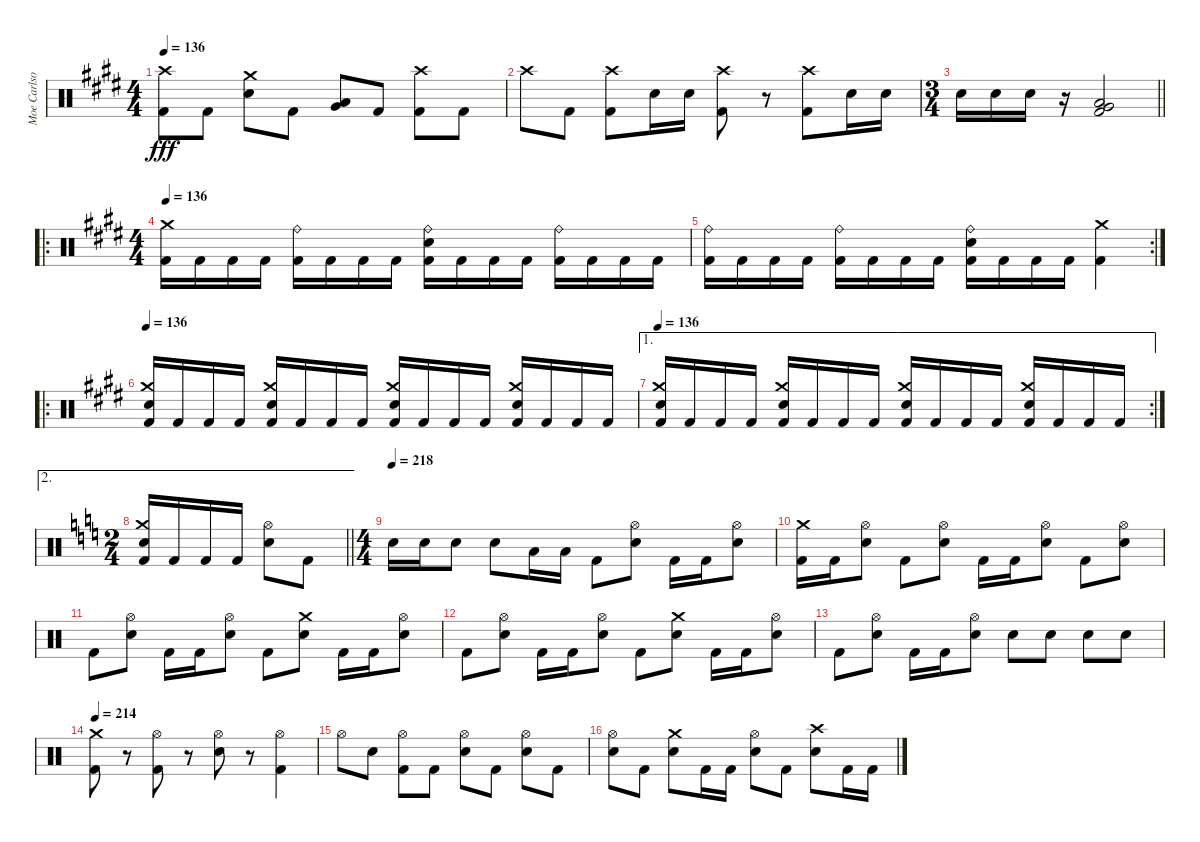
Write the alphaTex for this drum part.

\track ("Moe Carlson" "Moe Carlso") {instrument percussion}
\staff {score}
\articulation defaults
\ts (4 4)
\tempo 136
\clef neutral
\ks e
("Crash high (hit)" "Kick (hit) 2"{t}).8{dy fff} "Kick (hit) 2".8 ("Crash medium (hit)" "Electric Snare (hit)").8 "Kick (hit) 2".8 ("Low Tom (hit)" "Very Low Tom (hit)").8 "Kick (hit) 2".8 ("Crash high (hit)" "Kick (hit) 2").8 "Kick (hit) 2".8 |
"Crash high (hit)".8 "Kick (hit) 2".8 ("Crash high (hit)" "Kick (hit) 2").8 "Electric Snare (hit)".16 "Electric Snare (hit)".16 ("Crash high (hit)" "Kick (hit) 2").8 r.8 ("Crash high (hit)" "Kick (hit) 2").8 "Electric Snare (hit)".16 "Electric Snare (hit)".16 |
\ts (3 4)
\barLineRight lightlight "Electric Snare (hit)".16 "Electric Snare (hit)".16 "Electric Snare (hit)".16
r.16 ("Low Tom (hit)" "Very Low Tom (hit)" "Kick (hit) 2").2 |
\ro
\ts (4 4)
\tempo 136
("Crash medium (hit)" "Kick (hit) 2").16 "Kick (hit) 2".16 "Kick (hit) 2".16 "Kick (hit) 2".16 ("Ride (bell)" "Kick (hit) 2").16 "Kick (hit) 2".16 "Kick (hit) 2".16 "Kick (hit) 2".16 ("Ride (bell)" "Electric Snare (hit)" "Kick (hit) 2").16 "Kick (hit) 2".16 "Kick (hit) 2".16 "Kick (hit) 2".16 ("Ride (bell)" "Kick (hit) 2").16 "Kick (hit) 2".16 "Kick (hit) 2".16 "Kick (hit) 2".16 |
\rc 2
("Ride (bell)" "Kick (hit) 2").16 "Kick (hit) 2".16 "Kick (hit) 2".16 "Kick (hit) 2".16 ("Ride (bell)" "Kick (hit) 2").16 "Kick (hit) 2".16 "Kick (hit) 2".16 "Kick (hit) 2".16 ("Ride (bell)" "Electric Snare (hit)" "Kick (hit) 2").16 "Kick (hit) 2".16 "Kick (hit) 2".16 "Kick (hit) 2".16 ("Crash medium (hit)" "Kick (hit) 2").4 |
\ro
\tempo 136
("Crash medium (hit)" "Electric Snare (hit)" "Kick (hit) 2").16 "Kick (hit) 2".16 "Kick (hit) 2".16 "Kick (hit) 2".16 ("Crash medium (hit)" "Electric Snare (hit)" "Kick (hit) 2").16 "Kick (hit) 2".16 "Kick (hit) 2".16 "Kick (hit) 2".16 ("Crash medium (hit)" "Electric Snare (hit)" "Kick (hit) 2").16 "Kick (hit) 2".16 "Kick (hit) 2".16 "Kick (hit) 2".16 ("Crash medium (hit)" "Electric Snare (hit)" "Kick (hit) 2").16 "Kick (hit) 2".16 "Kick (hit) 2".16 "Kick (hit) 2".16 |
\ae 1
\rc 2
\tempo 136
("Crash medium (hit)" "Electric Snare (hit)" "Kick (hit) 2").16 "Kick (hit) 2".16 "Kick (hit) 2".16 "Kick (hit) 2".16 ("Crash medium (hit)" "Electric Snare (hit)" "Kick (hit) 2").16 "Kick (hit) 2".16 "Kick (hit) 2".16 "Kick (hit) 2".16 ("Crash medium (hit)" "Electric Snare (hit)" "Kick (hit) 2").16 "Kick (hit) 2".16 "Kick (hit) 2".16 "Kick (hit) 2".16 ("Crash medium (hit)" "Electric Snare (hit)" "Kick (hit) 2").16 "Kick (hit) 2".16 "Kick (hit) 2".16 "Kick (hit) 2".16 |
\ae 2
\ts (2 4)
\barLineRight lightlight
\ks c
("Crash medium (hit)" "Electric Snare (hit)" "Kick (hit) 2").16 "Kick (hit) 2".16 "Kick (hit) 2".16 "Kick (hit) 2".16 ("Hi-Hat (open)" "Electric Snare (hit)").8 "Kick (hit) 2".8 |
\ts (4 4)
\tempo (218)
"Electric Snare (hit)".16 "Electric Snare (hit)".16 "Electric Snare (hit)".8 "Electric Snare (hit)".8 "Low Tom (hit)".16 "Low Tom (hit)".16 "Kick (hit) 2".8 ("Hi-Hat (open)" "Electric Snare (hit)").8 "Kick (hit) 2".16 "Kick (hit) 2".16 ("Hi-Hat (open)" "Electric Snare (hit)").8 |
("Crash medium (hit)" "Kick (hit) 2").16 "Kick (hit) 2".16 ("Hi-Hat (open)" "Electric Snare (hit)").8 "Kick (hit) 2".8 ("Hi-Hat (open)" "Electric Snare (hit)").8 "Kick (hit) 2".16 "Kick (hit) 2".16 ("Hi-Hat (open)" "Electric Snare (hit)").8 "Kick (hit) 2".8 ("Hi-Hat (open)" "Electric Snare (hit)").8 |
"Kick (hit) 2".8 ("Hi-Hat (open)" "Electric Snare (hit)").8 "Kick (hit) 2".16 "Kick (hit) 2".16 ("Hi-Hat (open)" "Electric Snare (hit)").8 "Kick (hit) 2".8 ("Crash medium (hit)" "Electric Snare (hit)").8 "Kick (hit) 2".16 "Kick (hit) 2".16 ("Hi-Hat (open)" "Electric Snare (hit)").8 |
"Kick (hit) 2".8 ("Hi-Hat (open)" "Electric Snare (hit)").8 "Kick (hit) 2".16 "Kick (hit) 2".16 ("Hi-Hat (open)" "Electric Snare (hit)").8 "Kick (hit) 2".8 ("Crash medium (hit)" "Electric Snare (hit)").8 "Kick (hit) 2".16 "Kick (hit) 2".16 ("Hi-Hat (open)" "Electric Snare (hit)").8 |
"Kick (hit) 2".8 ("Hi-Hat (open)" "Electric Snare (hit)").8 "Kick (hit) 2".16 "Kick (hit) 2".16 ("Hi-Hat (open)" "Electric Snare (hit)").8 "Electric Snare (hit)".8 "Electric Snare (hit)".8 "Electric Snare (hit)".8 "Electric Snare (hit)".8 |
\tempo 214
("Crash medium (hit)" "Kick (hit) 2").8 r.8 ("Hi-Hat (open)" "Kick (hit) 2").8 r.8 ("Hi-Hat (open)" "Electric Snare (hit)").8 r.8 ("Hi-Hat (open)" "Kick (hit) 2").4 |
"Hi-Hat (open)".8 "Electric Snare (hit)".8 ("Hi-Hat (open)" "Kick (hit) 2").8 "Kick (hit) 2".8 ("Hi-Hat (open)" "Electric Snare (hit)").8 "Kick (hit) 2".8 ("Hi-Hat (open)" "Electric Snare (hit)").8 "Kick (hit) 2".8 |
("Hi-Hat (open)" "Electric Snare (hit)").8 "Kick (hit) 2".8 ("Crash medium (hit)" "Electric Snare (hit)").8 "Kick (hit) 2".16 "Kick (hit) 2".16 ("Hi-Hat (open)" "Electric Snare (hit)").8 "Kick (hit) 2".8 ("Crash high (hit)" "Electric Snare (hit)").8 "Kick (hit) 2".16 "Kick (hit) 2".16
